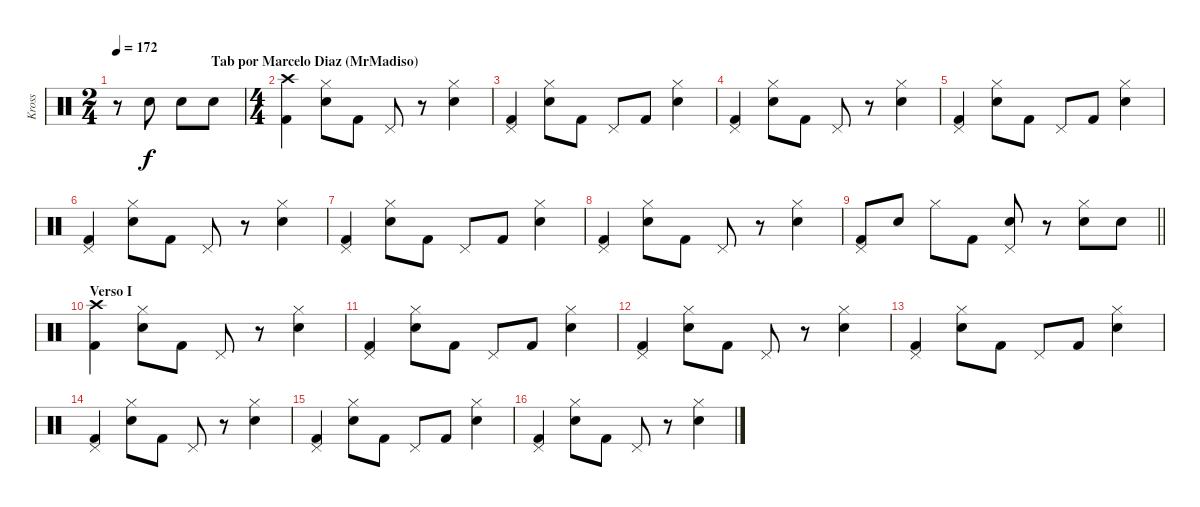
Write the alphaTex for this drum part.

\track ("Kross" "Kross") {instrument percussion}
\staff {score}
\articulation defaults
\ts (2 4)
\section ("" "                            Tab por Marcelo Diaz (MrMadiso)")
\tempo 172
\clef neutral
\ks c
r.8{dy f} "Electric Snare (hit)".8 "Electric Snare (hit)".8 "Electric Snare (hit)".8 |
\ts (4 4)
("Crash high (hit)" "Kick (hit) 2").4 ("Hi-Hat (closed)" "Electric Snare (hit)").8 "Kick (hit) 2".8 "Pedal Hi-Hat (hit)".8 r.8 ("Hi-Hat (closed)" "Electric Snare (hit)").4 |
("Pedal Hi-Hat (hit)" "Kick (hit) 2").4 ("Hi-Hat (closed)" "Electric Snare (hit)").8 "Kick (hit) 2".8 "Pedal Hi-Hat (hit)".8 "Kick (hit) 2".8 ("Hi-Hat (closed)" "Electric Snare (hit)").4 |
("Pedal Hi-Hat (hit)" "Kick (hit) 2").4 ("Hi-Hat (closed)" "Electric Snare (hit)").8 "Kick (hit) 2".8 "Pedal Hi-Hat (hit)".8 r.8 ("Hi-Hat (closed)" "Electric Snare (hit)").4 |
("Pedal Hi-Hat (hit)" "Kick (hit) 2").4 ("Hi-Hat (closed)" "Electric Snare (hit)").8 "Kick (hit) 2".8 "Pedal Hi-Hat (hit)".8 "Kick (hit) 2".8 ("Hi-Hat (closed)" "Electric Snare (hit)").4 |
("Pedal Hi-Hat (hit)" "Kick (hit) 2").4 ("Hi-Hat (closed)" "Electric Snare (hit)").8 "Kick (hit) 2".8 "Pedal Hi-Hat (hit)".8 r.8 ("Hi-Hat (closed)" "Electric Snare (hit)").4 |
("Pedal Hi-Hat (hit)" "Kick (hit) 2").4 ("Hi-Hat (closed)" "Electric Snare (hit)").8 "Kick (hit) 2".8 "Pedal Hi-Hat (hit)".8 "Kick (hit) 2".8 ("Hi-Hat (closed)" "Electric Snare (hit)").4 |
("Pedal Hi-Hat (hit)" "Kick (hit) 2").4 ("Hi-Hat (closed)" "Electric Snare (hit)").8 "Kick (hit) 2".8 "Pedal Hi-Hat (hit)".8 r.8 ("Hi-Hat (closed)" "Electric Snare (hit)").4 |
\barLineRight lightlight
("Pedal Hi-Hat (hit)" "Kick (hit) 2").8 "Electric Snare (hit)".8 "Hi-Hat (closed)".8 "Kick (hit) 2".8 ("Pedal Hi-Hat (hit)" "Electric Snare (hit)").8 r.8 ("Hi-Hat (closed)" "Electric Snare (hit)").8 "Electric Snare (hit)".8 |
\section ("" "Verso I")
("Crash high (hit)" "Kick (hit) 2").4 ("Hi-Hat (closed)" "Electric Snare (hit)").8 "Kick (hit) 2".8 "Pedal Hi-Hat (hit)".8 r.8 ("Hi-Hat (closed)" "Electric Snare (hit)").4 |
("Pedal Hi-Hat (hit)" "Kick (hit) 2").4 ("Hi-Hat (closed)" "Electric Snare (hit)").8 "Kick (hit) 2".8 "Pedal Hi-Hat (hit)".8 "Kick (hit) 2".8 ("Hi-Hat (closed)" "Electric Snare (hit)").4 |
("Pedal Hi-Hat (hit)" "Kick (hit) 2").4 ("Hi-Hat (closed)" "Electric Snare (hit)").8 "Kick (hit) 2".8 "Pedal Hi-Hat (hit)".8 r.8 ("Hi-Hat (closed)" "Electric Snare (hit)").4 |
("Pedal Hi-Hat (hit)" "Kick (hit) 2").4 ("Hi-Hat (closed)" "Electric Snare (hit)").8 "Kick (hit) 2".8 "Pedal Hi-Hat (hit)".8 "Kick (hit) 2".8 ("Hi-Hat (closed)" "Electric Snare (hit)").4 |
("Pedal Hi-Hat (hit)" "Kick (hit) 2").4 ("Hi-Hat (closed)" "Electric Snare (hit)").8 "Kick (hit) 2".8 "Pedal Hi-Hat (hit)".8 r.8 ("Hi-Hat (closed)" "Electric Snare (hit)").4 |
("Pedal Hi-Hat (hit)" "Kick (hit) 2").4 ("Hi-Hat (closed)" "Electric Snare (hit)").8 "Kick (hit) 2".8 "Pedal Hi-Hat (hit)".8 "Kick (hit) 2".8 ("Hi-Hat (closed)" "Electric Snare (hit)").4 |
("Pedal Hi-Hat (hit)" "Kick (hit) 2").4 ("Hi-Hat (closed)" "Electric Snare (hit)").8 "Kick (hit) 2".8 "Pedal Hi-Hat (hit)".8 r.8 ("Hi-Hat (closed)" "Electric Snare (hit)").4
